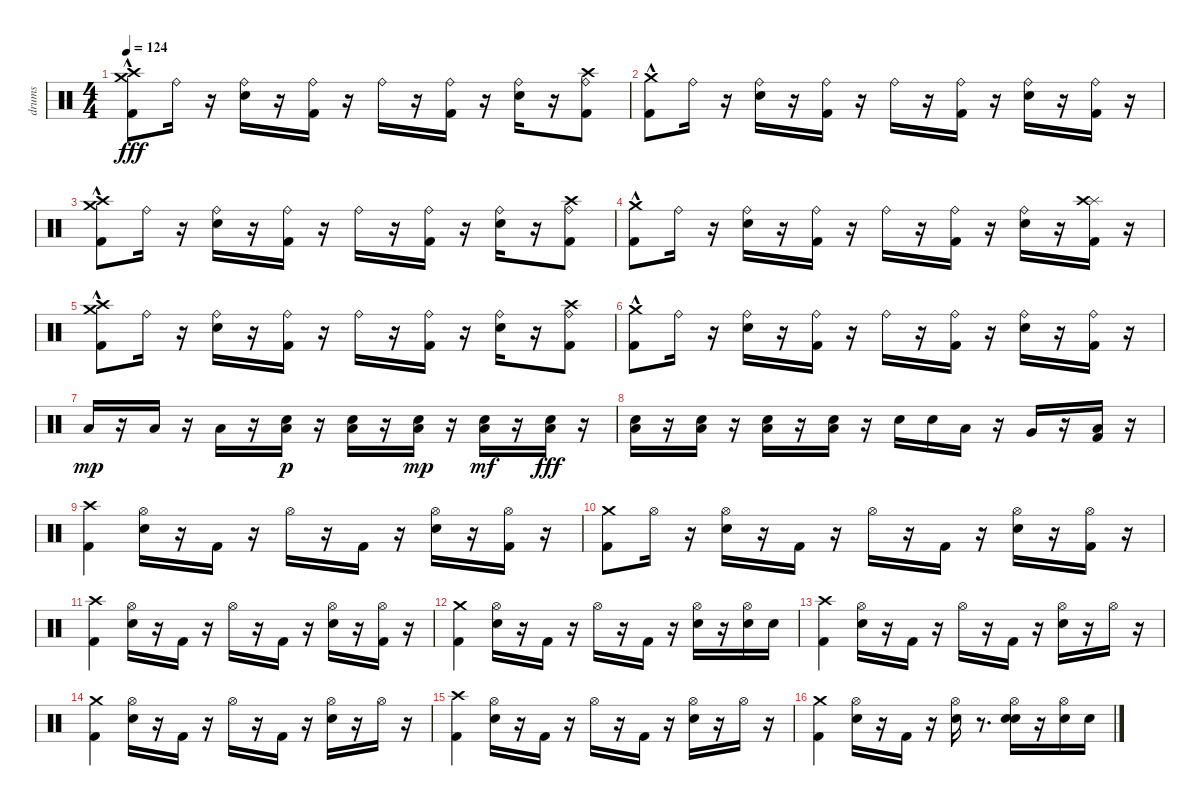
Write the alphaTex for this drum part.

\track ("drums" "drums") {instrument percussion}
\staff {score}
\articulation defaults
\ts (4 4)
\tempo 124
\clef neutral
\ks c
("Crash medium (hit)"{hac} "Crash high (hit)"{hac} "Kick (hit) 2").8{dy fff} "Ride (bell)".16 r.16 ("Snare (hit) 2" "Ride (bell)").16 r.16 ("Kick (hit) 2" "Ride (bell)").16 r.16 "Ride (bell)".16 r.16 ("Kick (hit) 2" "Ride (bell)").16 r.16 ("Snare (hit) 2" "Ride (bell)").16 r.16 ("Crash high (hit)" "Kick (hit) 2" "Ride (bell)").8 |
("Crash medium (hit)"{hac} "Kick (hit) 2").8 "Ride (bell)".16 r.16 ("Snare (hit) 2" "Ride (bell)").16 r.16 ("Kick (hit) 2" "Ride (bell)").16 r.16 "Ride (bell)".16 r.16 ("Kick (hit) 2" "Ride (bell)").16 r.16 ("Snare (hit) 2" "Ride (bell)").16 r.16 ("Kick (hit) 2" "Ride (bell)").16 r.16 |
("Crash medium (hit)"{hac} "Crash high (hit)"{hac} "Kick (hit) 2").8 "Ride (bell)".16 r.16 ("Snare (hit) 2" "Ride (bell)").16 r.16 ("Kick (hit) 2" "Ride (bell)").16 r.16 "Ride (bell)".16 r.16 ("Kick (hit) 2" "Ride (bell)").16 r.16 ("Snare (hit) 2" "Ride (bell)").16 r.16 ("Crash high (hit)" "Kick (hit) 2" "Ride (bell)").8 |
("Crash medium (hit)"{hac} "Kick (hit) 2").8 "Ride (bell)".16 r.16 ("Snare (hit) 2" "Ride (bell)").16 r.16 ("Kick (hit) 2" "Ride (bell)").16 r.16 "Ride (bell)".16 r.16 ("Kick (hit) 2" "Ride (bell)").16 r.16 ("Snare (hit) 2" "Ride (bell)").16 r.16 ("Kick (hit) 2" "Splash (hit)" "Crash high (hit)").16 r.16 |
("Crash medium (hit)"{hac} "Crash high (hit)"{hac} "Kick (hit) 2").8 "Ride (bell)".16 r.16 ("Snare (hit) 2" "Ride (bell)").16 r.16 ("Kick (hit) 2" "Ride (bell)").16 r.16 "Ride (bell)".16 r.16 ("Kick (hit) 2" "Ride (bell)").16 r.16 ("Snare (hit) 2" "Ride (bell)").16 r.16 ("Crash high (hit)" "Kick (hit) 2" "Ride (bell)").8 |
("Crash medium (hit)"{hac} "Kick (hit) 2").8 "Ride (bell)".16 r.16 ("Snare (hit) 2" "Ride (bell)").16 r.16 ("Kick (hit) 2" "Ride (bell)").16 r.16 "Ride (bell)".16 r.16 ("Kick (hit) 2" "Ride (bell)").16 r.16 ("Snare (hit) 2" "Ride (bell)").16 r.16 ("Kick (hit) 2" "Ride (bell)").16 r.16 |
"Low Floor Tom (hit)".16{dy mp} r.16 "Low Floor Tom (hit)".16 r.16 "Low Floor Tom (hit)".16 r.16 ("Low Floor Tom (hit)" "Snare (hit) 2").16{dy p} r.16 ("Low Floor Tom (hit)" "Snare (hit) 2").16 r.16 ("Snare (hit) 2" "Low Floor Tom (hit)").16{dy mp} r.16 ("Snare (hit) 2" "Low Floor Tom (hit)").16{dy mf} r.16 ("Snare (hit) 2" "Low Floor Tom (hit)").16{dy fff} r.16 |
("Snare (hit) 2" "Low Floor Tom (hit)").16 r.16 ("Snare (hit) 2" "Low Floor Tom (hit)").16 r.16 ("Snare (hit) 2" "Low Floor Tom (hit)").16 r.16 ("Snare (hit) 2" "Low Floor Tom (hit)").16 r.16 "Snare (hit) 2".16 "Snare (hit) 2".16 "Low Tom (hit)".16 r.16 "Very Low Tom (hit)".16 r.16 ("Kick (hit) 2" "Low Floor Tom (hit)").16 r.16 |
("Kick (hit) 2" "Crash high (hit)").4 ("Snare (hit) 2" "Hi-Hat (open)").16 r.16 "Kick (hit) 2".16 r.16 "Hi-Hat (open)".16 r.16 "Kick (hit) 2".16 r.16 ("Snare (hit) 2" "Hi-Hat (open)").16 r.16 ("Hi-Hat (open)" "Kick (hit) 2").16 r.16 |
("Kick (hit) 2" "Crash medium (hit)").8 "Hi-Hat (open)".16 r.16 ("Snare (hit) 2" "Hi-Hat (open)").16 r.16 "Kick (hit) 2".16 r.16 "Hi-Hat (open)".16 r.16 "Kick (hit) 2".16 r.16 ("Snare (hit) 2" "Hi-Hat (open)").16 r.16 ("Kick (hit) 2" "Hi-Hat (open)").16 r.16 |
("Kick (hit) 2" "Crash high (hit)").4 ("Snare (hit) 2" "Hi-Hat (open)").16 r.16 "Kick (hit) 2".16 r.16 "Hi-Hat (open)".16 r.16 "Kick (hit) 2".16 r.16 ("Snare (hit) 2" "Hi-Hat (open)").16 r.16 ("Hi-Hat (open)" "Kick (hit) 2").16 r.16 |
("Kick (hit) 2" "Crash medium (hit)").4 ("Snare (hit) 2" "Hi-Hat (open)").16 r.16 "Kick (hit) 2".16 r.16 "Hi-Hat (open)".16 r.16 "Kick (hit) 2".16 r.16 ("Snare (hit) 2" "Hi-Hat (open)").16 r.16 ("Hi-Hat (open)" "Snare (hit) 2").16 "Snare (hit) 2".16 |
("Kick (hit) 2" "Crash high (hit)").4 ("Snare (hit) 2" "Hi-Hat (open)").16 r.16 "Kick (hit) 2".16 r.16 "Hi-Hat (open)".16 r.16 "Kick (hit) 2".16 r.16 ("Snare (hit) 2" "Hi-Hat (open)").16 r.16 "Hi-Hat (open)".16 r.16 |
("Kick (hit) 2" "Crash medium (hit)").4 ("Snare (hit) 2" "Hi-Hat (open)").16 r.16 "Kick (hit) 2".16 r.16 "Hi-Hat (open)".16 r.16 "Kick (hit) 2".16 r.16 ("Snare (hit) 2" "Hi-Hat (open)").16 r.16 "Hi-Hat (open)".16 r.16 |
("Kick (hit) 2" "Crash high (hit)").4 ("Snare (hit) 2" "Hi-Hat (open)").16 r.16 "Kick (hit) 2".16 r.16 "Hi-Hat (open)".16 r.16 "Kick (hit) 2".16 r.16 ("Snare (hit) 2" "Hi-Hat (open)").16 r.16 "Hi-Hat (open)".16 r.16 |
("Kick (hit) 2" "Crash medium (hit)").4 ("Snare (hit) 2" "Hi-Hat (open)").16 r.16 "Kick (hit) 2".16 r.16 ("Hi-Hat (open)" "Snare (hit) 2").16 r.8{d} ("Snare (hit) 2" "Snare (hit) 2" "Hi-Hat (open)").16 r.16 ("Snare (hit) 2" "Hi-Hat (open)").16 "Snare (hit) 2".16
